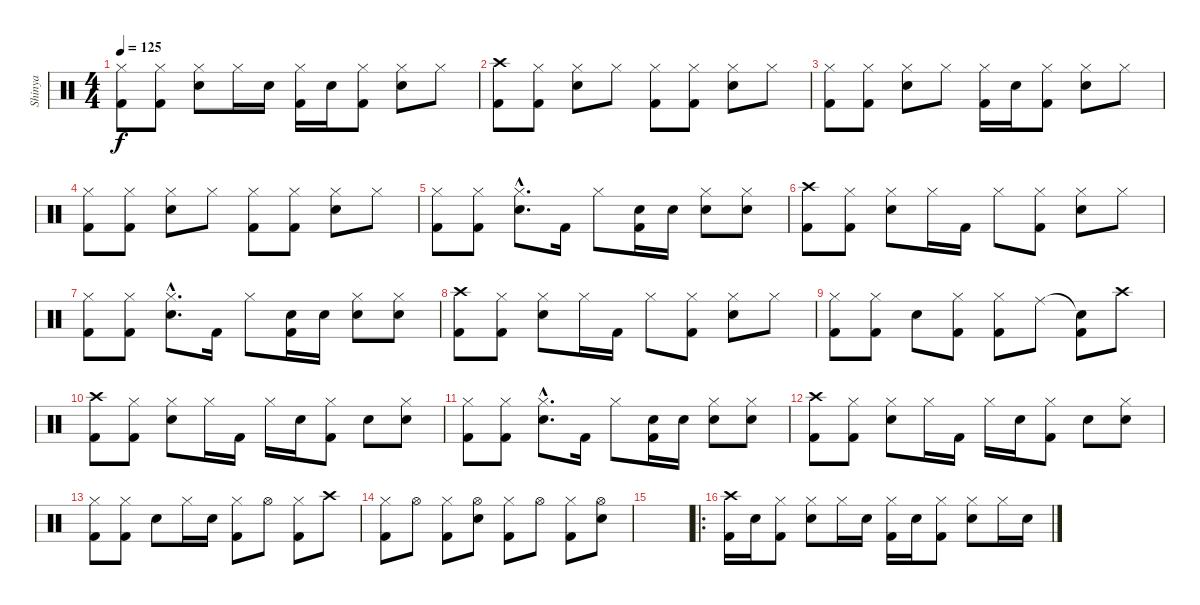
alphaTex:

\track ("Shinya" "Shinya") {instrument percussion}
\staff {score}
\articulation defaults
\ts (4 4)
\tempo 125
\clef neutral
\ks c
("Hi-Hat (closed)" "Kick (hit) 2").8{dy f} ("Hi-Hat (closed)" "Kick (hit) 2").8 ("Hi-Hat (closed)" "Snare (hit) 2").8 "Hi-Hat (closed)".16 "Snare (hit) 2".16 ("Hi-Hat (closed)" "Kick (hit) 2").16 "Snare (hit) 2".16 ("Hi-Hat (closed)" "Kick (hit) 2").8 ("Hi-Hat (closed)" "Snare (hit) 2").8 "Hi-Hat (closed)".8 |
("Crash high (hit)" "Kick (hit) 2").8 ("Hi-Hat (closed)" "Kick (hit) 2").8 ("Hi-Hat (closed)" "Snare (hit) 2").8 "Hi-Hat (closed)".8 ("Hi-Hat (closed)" "Kick (hit) 2").8 ("Hi-Hat (closed)" "Kick (hit) 2").8 ("Hi-Hat (closed)" "Snare (hit) 2").8 "Hi-Hat (closed)".8 |
("Hi-Hat (closed)" "Kick (hit) 2").8 ("Hi-Hat (closed)" "Kick (hit) 2").8 ("Hi-Hat (closed)" "Snare (hit) 2").8 "Hi-Hat (closed)".8 ("Hi-Hat (closed)" "Kick (hit) 2").16 "Snare (hit) 2".16 ("Hi-Hat (closed)" "Kick (hit) 2").8 ("Hi-Hat (closed)" "Snare (hit) 2").8 "Hi-Hat (closed)".8 |
("Hi-Hat (closed)" "Kick (hit) 2").8 ("Hi-Hat (closed)" "Kick (hit) 2").8 ("Hi-Hat (closed)" "Snare (hit) 2").8 "Hi-Hat (closed)".8 ("Hi-Hat (closed)" "Kick (hit) 2").8 ("Hi-Hat (closed)" "Kick (hit) 2").8 ("Hi-Hat (closed)" "Snare (hit) 2").8 "Hi-Hat (closed)".8 |
("Hi-Hat (closed)" "Kick (hit) 2").8 ("Hi-Hat (closed)" "Kick (hit) 2").8 ("Hi-Hat (closed)"{hac} "Snare (hit) 2"{hac}).8{d} "Kick (hit) 2".16 "Hi-Hat (closed)".8 ("Snare (hit) 2" "Kick (hit) 2").16 "Snare (hit) 2".16 ("Hi-Hat (closed)" "Snare (hit) 2").8 ("Hi-Hat (closed)" "Snare (hit) 2").8 |
("Kick (hit) 2" "Crash high (hit)").8 ("Hi-Hat (closed)" "Kick (hit) 2").8 ("Hi-Hat (closed)" "Snare (hit) 2").8 "Hi-Hat (closed)".16 "Kick (hit) 2".16 "Hi-Hat (closed)".8 ("Hi-Hat (closed)" "Kick (hit) 2").8 ("Hi-Hat (closed)" "Snare (hit) 2").8 "Hi-Hat (closed)".8 |
("Hi-Hat (closed)" "Kick (hit) 2").8 ("Hi-Hat (closed)" "Kick (hit) 2").8 ("Hi-Hat (closed)"{hac} "Snare (hit) 2"{hac}).8{d} "Kick (hit) 2".16 "Hi-Hat (closed)".8 ("Snare (hit) 2" "Kick (hit) 2").16 "Snare (hit) 2".16 ("Hi-Hat (closed)" "Snare (hit) 2").8 ("Hi-Hat (closed)" "Snare (hit) 2").8 |
("Kick (hit) 2" "Crash high (hit)").8 ("Hi-Hat (closed)" "Kick (hit) 2").8 ("Hi-Hat (closed)" "Snare (hit) 2").8 "Hi-Hat (closed)".16 "Kick (hit) 2".16 "Hi-Hat (closed)".8 ("Hi-Hat (closed)" "Kick (hit) 2").8 ("Hi-Hat (closed)" "Snare (hit) 2").8 "Hi-Hat (closed)".8 |
("Hi-Hat (closed)" "Kick (hit) 2").8 ("Hi-Hat (closed)" "Kick (hit) 2").8 "Snare (hit) 2".8 ("Hi-Hat (closed)" "Kick (hit) 2").8 ("Hi-Hat (closed)" "Kick (hit) 2").8 "Ride (middle)".8 ("Snare (hit)"{t} "Kick (hit) 2").8 "Crash high (hit)".8 |
("Crash high (hit)" "Kick (hit) 2").8 ("Hi-Hat (closed)" "Kick (hit) 2").8 ("Hi-Hat (closed)" "Snare (hit) 2").8 "Hi-Hat (closed)".16 "Kick (hit) 2".16 "Hi-Hat (closed)".16 "Snare (hit) 2".16 ("Hi-Hat (closed)" "Kick (hit) 2").8 "Snare (hit) 2".8 ("Hi-Hat (closed)" "Snare (hit) 2").8 |
("Hi-Hat (closed)" "Kick (hit) 2").8 ("Hi-Hat (closed)" "Kick (hit) 2").8 ("Hi-Hat (closed)"{hac} "Snare (hit) 2"{hac}).8{d} "Kick (hit) 2".16 "Hi-Hat (closed)".8 ("Snare (hit) 2" "Kick (hit) 2").16 "Snare (hit) 2".16 ("Hi-Hat (closed)" "Snare (hit) 2").8 ("Hi-Hat (closed)" "Snare (hit) 2").8 |
("Crash high (hit)" "Kick (hit) 2").8 ("Hi-Hat (closed)" "Kick (hit) 2").8 ("Hi-Hat (closed)" "Snare (hit) 2").8 "Hi-Hat (closed)".16 "Kick (hit) 2".16 "Hi-Hat (closed)".16 "Snare (hit) 2".16 ("Hi-Hat (closed)" "Kick (hit) 2").8 "Snare (hit) 2".8 ("Hi-Hat (closed)" "Snare (hit) 2").8 |
("Hi-Hat (closed)" "Kick (hit) 2").8 ("Hi-Hat (closed)" "Kick (hit) 2").8 "Snare (hit) 2".8 "Hi-Hat (closed)".16 "Snare (hit) 2".16 ("Hi-Hat (closed)" "Kick (hit) 2").8 "Hi-Hat (open)".8 ("Hi-Hat (closed)" "Kick (hit) 2").8 "Crash high (hit)".8 |
("Hi-Hat (closed)" "Kick (hit) 2").8 "Hi-Hat (open)".8 ("Hi-Hat (closed)" "Kick (hit) 2").8 ("Hi-Hat (open)" "Snare (hit) 2").8 ("Hi-Hat (closed)" "Kick (hit) 2").8 "Hi-Hat (open)".8 ("Hi-Hat (closed)" "Kick (hit) 2").8 ("Hi-Hat (open)" "Snare (hit) 2").8 |
|
\ro
("Crash high (hit)" "Kick (hit) 2").16 "Snare (hit) 2".16 ("Hi-Hat (closed)" "Kick (hit) 2").8 ("Hi-Hat (closed)" "Snare (hit) 2").8 "Hi-Hat (closed)".16 "Snare (hit) 2".16 ("Hi-Hat (closed)" "Kick (hit) 2").16 "Snare (hit) 2".16 ("Hi-Hat (closed)" "Kick (hit) 2").8 ("Hi-Hat (closed)" "Snare (hit) 2").8 "Hi-Hat (closed)".16 "Snare (hit) 2".16
